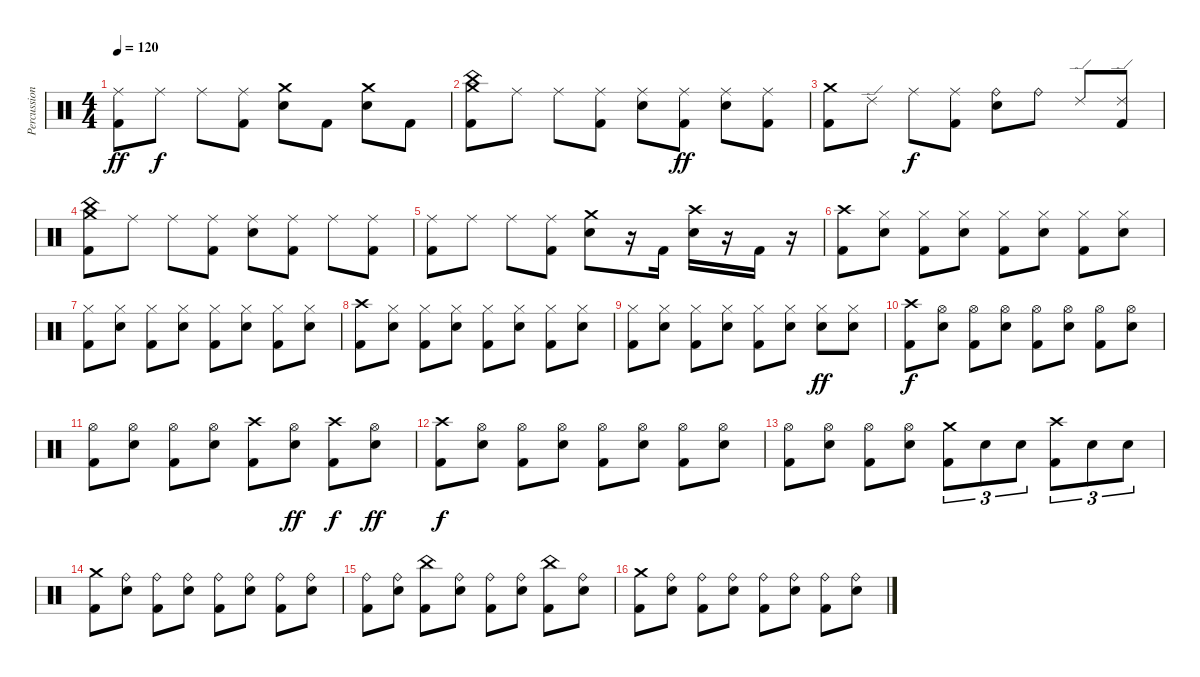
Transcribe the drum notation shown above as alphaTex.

\track ("Percussion" "Percussion") {instrument percussion}
\staff {score}
\articulation defaults
\ts (4 4)
\tempo 120
\clef neutral
\ks c
("Ride (middle)" "Kick (hit) 2").8{dy ff} "Ride (middle)".8{dy f} "Ride (middle)".8 ("Ride (middle)" "Kick (hit) 2").8 ("Crash medium (hit)" "Snare (hit) 2").8 "Kick (hit) 2".8 ("Crash medium (hit)" "Snare (hit) 2").8 "Kick (hit) 2".8 |
("Crash medium (hit)" "China (hit)" "Kick (hit) 2").8 "Ride (middle)".8 "Ride (middle)".8 ("Ride (middle)" "Kick (hit) 2").8 ("Ride (middle)" "Snare (hit) 2").8 ("Ride (middle)" "Kick (hit) 2").8{dy ff} ("Ride (middle)" "Snare (hit) 2").8 ("Ride (middle)" "Kick (hit) 2").8 |
("Crash medium (hit)" "Kick (hit) 2").8 "Ride (edge) 2".8 "Ride (middle)".8{dy f} ("Ride (middle)" "Kick (hit) 2").8 ("Ride (bell)" "Snare (hit) 2").8 "Ride (bell)".8 "Ride (edge) 2".8 ("Ride (edge) 2" "Kick (hit) 2").8 |
("Crash medium (hit)" "China (hit)" "Kick (hit) 2").8 "Ride (middle)".8 "Ride (middle)".8 ("Ride (middle)" "Kick (hit) 2").8 ("Ride (middle)" "Snare (hit) 2").8 ("Ride (middle)" "Kick (hit) 2").8 "Ride (middle)".8 ("Ride (middle)" "Kick (hit) 2").8 |
("Ride (middle)" "Kick (hit) 2").8 "Ride (middle)".8 "Ride (middle)".8 ("Ride (middle)" "Kick (hit) 2").8 ("Crash medium (hit)" "Snare (hit) 2").8 r.16 "Kick (hit) 2".16 ("Crash high (hit)" "Snare (hit) 2").16 r.16 "Kick (hit) 2".16 r.16 |
("Crash high (hit)" "Kick (hit) 2").8 ("Hi-Hat (closed)" "Snare (hit) 2").8 ("Hi-Hat (closed)" "Kick (hit) 2").8 ("Hi-Hat (closed)" "Snare (hit) 2").8 ("Hi-Hat (closed)" "Kick (hit) 2").8 ("Hi-Hat (closed)" "Snare (hit) 2").8 ("Hi-Hat (closed)" "Kick (hit) 2").8 ("Hi-Hat (closed)" "Snare (hit) 2").8 |
("Hi-Hat (closed)" "Kick (hit) 2").8 ("Hi-Hat (closed)" "Snare (hit) 2").8 ("Hi-Hat (closed)" "Kick (hit) 2").8 ("Hi-Hat (closed)" "Snare (hit) 2").8 ("Hi-Hat (closed)" "Kick (hit) 2").8 ("Hi-Hat (closed)" "Snare (hit) 2").8 ("Hi-Hat (closed)" "Kick (hit) 2").8 ("Hi-Hat (closed)" "Snare (hit) 2").8 |
("Crash high (hit)" "Kick (hit) 2").8 ("Hi-Hat (closed)" "Snare (hit) 2").8 ("Hi-Hat (closed)" "Kick (hit) 2").8 ("Hi-Hat (closed)" "Snare (hit) 2").8 ("Hi-Hat (closed)" "Kick (hit) 2").8 ("Hi-Hat (closed)" "Snare (hit) 2").8 ("Hi-Hat (closed)" "Kick (hit) 2").8 ("Hi-Hat (closed)" "Snare (hit) 2").8 |
("Hi-Hat (closed)" "Kick (hit) 2").8 ("Hi-Hat (closed)" "Snare (hit) 2").8 ("Hi-Hat (closed)" "Kick (hit) 2").8 ("Hi-Hat (closed)" "Snare (hit) 2").8 ("Hi-Hat (closed)" "Kick (hit) 2").8 ("Hi-Hat (closed)" "Snare (hit) 2").8 ("Hi-Hat (closed)" "Snare (hit) 2").8{dy ff} ("Hi-Hat (closed)" "Snare (hit) 2").8 |
("Crash high (hit)" "Kick (hit) 2").8{dy f} ("Hi-Hat (open)" "Snare (hit) 2").8 ("Hi-Hat (open)" "Kick (hit) 2").8 ("Hi-Hat (open)" "Snare (hit) 2").8 ("Hi-Hat (open)" "Kick (hit) 2").8 ("Hi-Hat (open)" "Snare (hit) 2").8 ("Hi-Hat (open)" "Kick (hit) 2").8 ("Hi-Hat (open)" "Snare (hit) 2").8 |
("Hi-Hat (open)" "Kick (hit) 2").8 ("Hi-Hat (open)" "Snare (hit) 2").8 ("Hi-Hat (open)" "Kick (hit) 2").8 ("Hi-Hat (open)" "Snare (hit) 2").8 ("Crash high (hit)" "Kick (hit) 2").8 ("Hi-Hat (open)" "Snare (hit) 2").8{dy ff} ("Crash high (hit)" "Kick (hit) 2").8{dy f} ("Hi-Hat (open)" "Snare (hit) 2").8{dy ff} |
("Crash high (hit)" "Kick (hit) 2").8{dy f} ("Hi-Hat (open)" "Snare (hit) 2").8 ("Hi-Hat (open)" "Kick (hit) 2").8 ("Hi-Hat (open)" "Snare (hit) 2").8 ("Hi-Hat (open)" "Kick (hit) 2").8 ("Hi-Hat (open)" "Snare (hit) 2").8 ("Hi-Hat (open)" "Kick (hit) 2").8 ("Hi-Hat (open)" "Snare (hit) 2").8 |
("Hi-Hat (open)" "Kick (hit) 2").8 ("Hi-Hat (open)" "Snare (hit) 2").8 ("Hi-Hat (open)" "Kick (hit) 2").8 ("Hi-Hat (open)" "Snare (hit) 2").8 ("Crash medium (hit)" "Kick (hit) 2").8{tu (3 2)} "Snare (hit) 2".8{tu (3 2)} "Snare (hit) 2".8{tu (3 2)} ("Crash high (hit)" "Kick (hit) 2").8{tu (3 2)} "Snare (hit) 2".8{tu (3 2)} "Snare (hit) 2".8{tu (3 2)} |
("Crash medium (hit)" "Kick (hit) 2").8 ("Ride (bell)" "Snare (hit) 2").8 ("Ride (bell)" "Kick (hit) 2").8 ("Ride (bell)" "Snare (hit) 2").8 ("Ride (bell)" "Kick (hit) 2").8 ("Ride (bell)" "Snare (hit) 2").8 ("Ride (bell)" "Kick (hit) 2").8 ("Ride (bell)" "Snare (hit) 2").8 |
("Ride (bell)" "Kick (hit) 2").8 ("Ride (bell)" "Snare (hit) 2").8 ("China (hit)" "Kick (hit) 2").8 ("Ride (bell)" "Snare (hit) 2").8 ("Ride (bell)" "Kick (hit) 2").8 ("Ride (bell)" "Snare (hit) 2").8 ("China (hit)" "Kick (hit) 2").8 ("Ride (bell)" "Snare (hit) 2").8 |
("Crash medium (hit)" "Kick (hit) 2").8 ("Ride (bell)" "Snare (hit) 2").8 ("Ride (bell)" "Kick (hit) 2").8 ("Ride (bell)" "Snare (hit) 2").8 ("Ride (bell)" "Kick (hit) 2").8 ("Ride (bell)" "Snare (hit) 2").8 ("Ride (bell)" "Kick (hit) 2").8 ("Ride (bell)" "Snare (hit) 2").8
